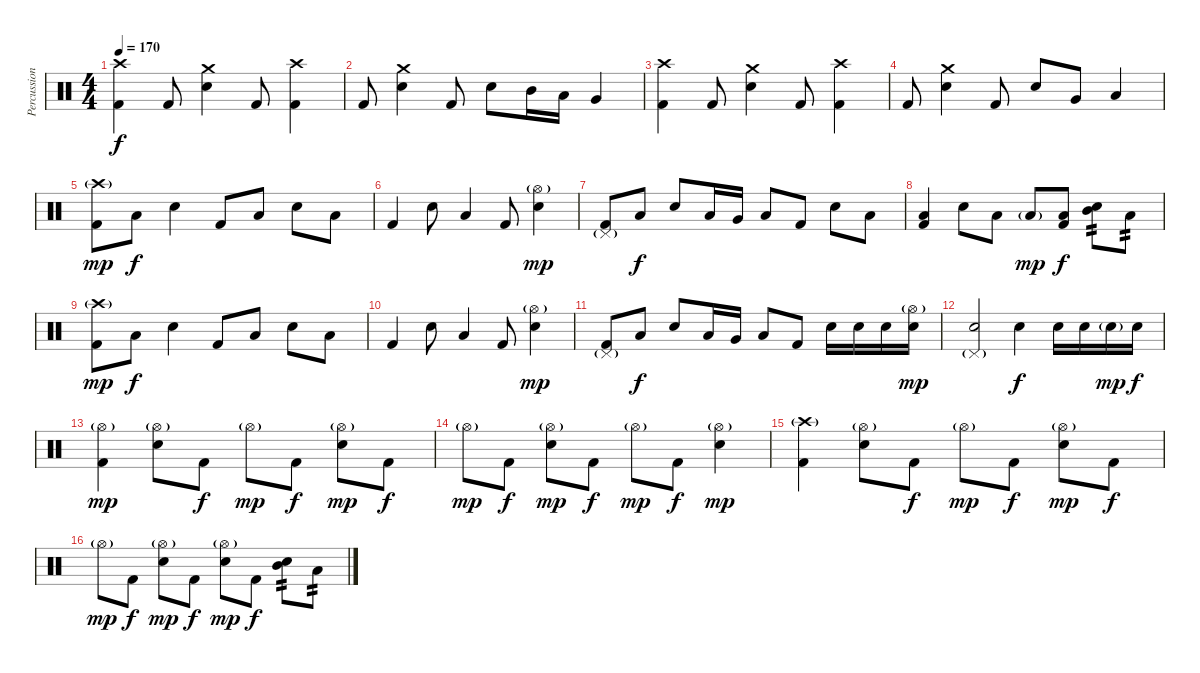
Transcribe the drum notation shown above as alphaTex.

\track ("Percussion" "Percussion") {instrument percussion}
\staff {score}
\articulation defaults
\ts (4 4)
\tempo 170
\clef neutral
\ks c
("Crash high (hit)" "Kick (hit) 2").4{dy f} "Kick (hit) 2".8 ("Crash medium (hit)" "Electric Snare (hit)").4 "Kick (hit) 2".8 ("Crash high (hit)" "Kick (hit) 2").4 |
"Kick (hit) 2".8 ("Crash medium (hit)" "Electric Snare (hit)").4 "Kick (hit) 2".8 "Electric Snare (hit)".8 "Mid Tom (hit)".16 "Low Tom (hit)".16 "Very Low Tom (hit)".4 |
("Crash high (hit)" "Kick (hit) 2").4 "Kick (hit) 2".8 ("Crash medium (hit)" "Electric Snare (hit)").4 "Kick (hit) 2".8 ("Crash high (hit)" "Kick (hit) 2").4 |
"Kick (hit) 2".8 ("Crash medium (hit)" "Electric Snare (hit)").4 "Kick (hit) 2".8 "Electric Snare (hit)".8 "Very Low Tom (hit)".8 "Low Floor Tom (hit)".4 |
("Crash high (hit)"{g} "Kick (hit) 2").8{dy mp} "Low Floor Tom (hit)".8{dy f} "Electric Snare (hit)".4 "Kick (hit) 2".8 "Low Floor Tom (hit)".8 "Electric Snare (hit)".8 "Low Floor Tom (hit)".8 |
"Kick (hit) 2".4 "Electric Snare (hit)".8 "Low Floor Tom (hit)".4 "Kick (hit) 2".8 ("Hi-Hat (open)"{g} "Electric Snare (hit)").4{dy mp} |
("Pedal Hi-Hat (hit)"{g} "Kick (hit) 2").8 "Low Floor Tom (hit)".8{dy f} "Electric Snare (hit)".8 "Low Floor Tom (hit)".16 "Very Low Tom (hit)".16 "Low Floor Tom (hit)".8 "Kick (hit) 2".8 "Electric Snare (hit)".8 "Low Floor Tom (hit)".8 |
("Low Floor Tom (hit)" "Kick (hit) 2").4 "Electric Snare (hit)".8 "Low Floor Tom (hit)".8 "Low Floor Tom (hit)"{g}.8{dy mp} ("Low Floor Tom (hit)" "Kick (hit) 2").8{dy f} ("Mid Tom (hit)" "Electric Snare (hit)").8{tp 2} "Low Tom (hit)".8{tp 2} |
("Crash high (hit)"{g} "Kick (hit) 2").8{dy mp} "Low Floor Tom (hit)".8{dy f} "Electric Snare (hit)".4 "Kick (hit) 2".8 "Low Floor Tom (hit)".8 "Electric Snare (hit)".8 "Low Floor Tom (hit)".8 |
"Kick (hit) 2".4 "Electric Snare (hit)".8 "Low Floor Tom (hit)".4 "Kick (hit) 2".8 ("Hi-Hat (open)"{g} "Electric Snare (hit)").4{dy mp} |
("Pedal Hi-Hat (hit)"{g} "Kick (hit) 2").8 "Low Floor Tom (hit)".8{dy f} "Electric Snare (hit)".8 "Low Floor Tom (hit)".16 "Very Low Tom (hit)".16 "Low Floor Tom (hit)".8 "Kick (hit) 2".8 "Electric Snare (hit)".16 "Electric Snare (hit)".16 "Electric Snare (hit)".16 ("Hi-Hat (open)"{g} "Electric Snare (hit)").16{dy mp} |
("Pedal Hi-Hat (hit)"{g} "Electric Snare (hit)").2 "Snare (hit)".4{dy f} "Electric Snare (hit)".16 "Electric Snare (hit)".16 "Electric Snare (hit)"{g}.16{dy mp} "Electric Snare (hit)".16{dy f} |
("Hi-Hat (open)"{g} "Kick (hit) 2").4{dy mp} ("Hi-Hat (open)"{g} "Electric Snare (hit)").8 "Kick (hit) 2".8{dy f} "Hi-Hat (open)"{g}.8{dy mp} "Kick (hit) 2".8{dy f} ("Hi-Hat (open)"{g} "Electric Snare (hit)").8{dy mp} "Kick (hit) 2".8{dy f} |
"Hi-Hat (open)"{g}.8{dy mp} "Kick (hit) 2".8{dy f} ("Hi-Hat (open)"{g} "Electric Snare (hit)").8{dy mp} "Kick (hit) 2".8{dy f} "Hi-Hat (open)"{g}.8{dy mp} "Kick (hit) 2".8{dy f} ("Hi-Hat (open)"{g} "Electric Snare (hit)").4{dy mp} |
("Crash high (hit)"{g} "Kick (hit) 2").4 ("Hi-Hat (open)"{g} "Electric Snare (hit)").8 "Kick (hit) 2".8{dy f} "Hi-Hat (open)"{g}.8{dy mp} "Kick (hit) 2".8{dy f} ("Hi-Hat (open)"{g} "Electric Snare (hit)").8{dy mp} "Kick (hit) 2".8{dy f} |
"Hi-Hat (open)"{g}.8{dy mp} "Kick (hit) 2".8{dy f} ("Hi-Hat (open)"{g} "Electric Snare (hit)").8{dy mp} "Kick (hit) 2".8{dy f} ("Hi-Hat (open)"{g} "Electric Snare (hit)").8{dy mp} "Kick (hit) 2".8{dy f} ("Mid Tom (hit)" "Electric Snare (hit)").8{tp 2} "Low Tom (hit)".8{tp 2}
